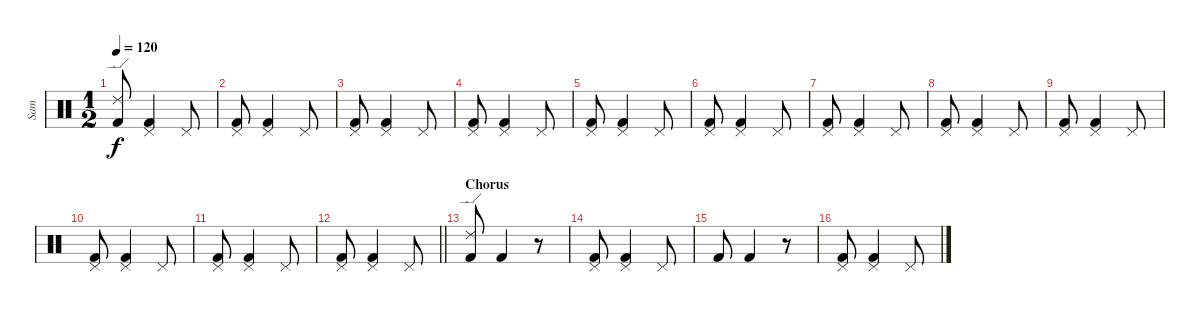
\track ("Sam" "Sam") {instrument percussion}
\staff {score}
\articulation defaults
\ts (1 2)
\tempo 120
\clef neutral
\ks c
("Ride (edge) 2" "Kick (hit) 2").8{dy f} ("Pedal Hi-Hat (hit)" "Kick (hit) 2").4 "Pedal Hi-Hat (hit)".8 |
("Pedal Hi-Hat (hit)" "Kick (hit) 2").8 ("Pedal Hi-Hat (hit)" "Kick (hit) 2").4 "Pedal Hi-Hat (hit)".8 |
("Pedal Hi-Hat (hit)" "Kick (hit) 2").8 ("Pedal Hi-Hat (hit)" "Kick (hit) 2").4 "Pedal Hi-Hat (hit)".8 |
("Pedal Hi-Hat (hit)" "Kick (hit) 2").8 ("Pedal Hi-Hat (hit)" "Kick (hit) 2").4 "Pedal Hi-Hat (hit)".8 |
("Pedal Hi-Hat (hit)" "Kick (hit) 2").8 ("Pedal Hi-Hat (hit)" "Kick (hit) 2").4 "Pedal Hi-Hat (hit)".8 |
("Pedal Hi-Hat (hit)" "Kick (hit) 2").8 ("Pedal Hi-Hat (hit)" "Kick (hit) 2").4 "Pedal Hi-Hat (hit)".8 |
("Pedal Hi-Hat (hit)" "Kick (hit) 2").8 ("Pedal Hi-Hat (hit)" "Kick (hit) 2").4 "Pedal Hi-Hat (hit)".8 |
("Pedal Hi-Hat (hit)" "Kick (hit) 2").8 ("Pedal Hi-Hat (hit)" "Kick (hit) 2").4 "Pedal Hi-Hat (hit)".8 |
("Pedal Hi-Hat (hit)" "Kick (hit) 2").8 ("Pedal Hi-Hat (hit)" "Kick (hit) 2").4 "Pedal Hi-Hat (hit)".8 |
("Pedal Hi-Hat (hit)" "Kick (hit) 2").8 ("Pedal Hi-Hat (hit)" "Kick (hit) 2").4 "Pedal Hi-Hat (hit)".8 |
("Pedal Hi-Hat (hit)" "Kick (hit) 2").8 ("Pedal Hi-Hat (hit)" "Kick (hit) 2").4 "Pedal Hi-Hat (hit)".8 |
\barLineRight lightlight
("Pedal Hi-Hat (hit)" "Kick (hit) 2").8 ("Pedal Hi-Hat (hit)" "Kick (hit) 2").4 "Pedal Hi-Hat (hit)".8 |
\section ("" "Chorus")
("Ride (edge) 2" "Kick (hit) 2").8 "Kick (hit) 2".4 r.8 |
("Pedal Hi-Hat (hit)" "Kick (hit) 2").8 ("Pedal Hi-Hat (hit)" "Kick (hit) 2").4 "Pedal Hi-Hat (hit)".8 |
"Kick (hit) 2".8 "Kick (hit) 2".4 r.8 |
("Pedal Hi-Hat (hit)" "Kick (hit) 2").8 ("Pedal Hi-Hat (hit)" "Kick (hit) 2").4 "Pedal Hi-Hat (hit)".8
